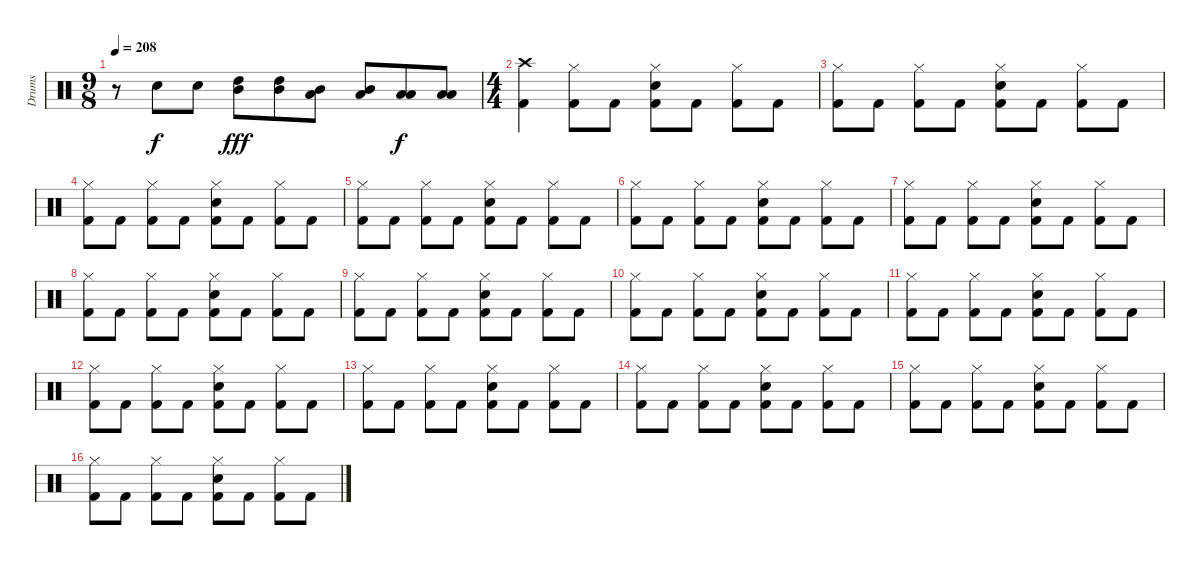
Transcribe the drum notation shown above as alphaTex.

\track ("Drums" "Drums") {instrument percussion}
\staff {score}
\articulation defaults
\ts (9 8)
\tempo 208
\clef neutral
\ks c
r.8{dy f} "Electric Snare (hit)".8 "Electric Snare (hit)".8 ("High Tom (hit)" "Mid Tom (hit)").8{dy fff} ("High Tom (hit)" "Mid Tom (hit)").8 ("Low Tom (hit)" "Mid Tom (hit)").8 ("Low Tom (hit)" "Mid Tom (hit)").8 ("Low Tom (hit)" "Low Tom (hit)").8{dy f} ("Low Tom (hit)" "Low Tom (hit)").8 |
\ts (4 4)
("Crash high (hit)" "Kick (hit) 2").4 ("Hi-Hat (closed)" "Kick (hit) 2").8 "Kick (hit) 2".8 ("Hi-Hat (closed)" "Electric Snare (hit)" "Kick (hit) 2").8 "Kick (hit) 2".8 ("Hi-Hat (closed)" "Kick (hit) 2").8 "Kick (hit) 2".8 |
("Hi-Hat (closed)" "Kick (hit) 2").8 "Kick (hit) 2".8 ("Hi-Hat (closed)" "Kick (hit) 2").8 "Kick (hit) 2".8 ("Hi-Hat (closed)" "Electric Snare (hit)" "Kick (hit) 2").8 "Kick (hit) 2".8 ("Hi-Hat (closed)" "Kick (hit) 2").8 "Kick (hit) 2".8 |
("Hi-Hat (closed)" "Kick (hit) 2").8 "Kick (hit) 2".8 ("Hi-Hat (closed)" "Kick (hit) 2").8 "Kick (hit) 2".8 ("Hi-Hat (closed)" "Electric Snare (hit)" "Kick (hit) 2").8 "Kick (hit) 2".8 ("Hi-Hat (closed)" "Kick (hit) 2").8 "Kick (hit) 2".8 |
("Hi-Hat (closed)" "Kick (hit) 2").8 "Kick (hit) 2".8 ("Hi-Hat (closed)" "Kick (hit) 2").8 "Kick (hit) 2".8 ("Hi-Hat (closed)" "Electric Snare (hit)" "Kick (hit) 2").8 "Kick (hit) 2".8 ("Hi-Hat (closed)" "Kick (hit) 2").8 "Kick (hit) 2".8 |
("Hi-Hat (closed)" "Kick (hit) 2").8 "Kick (hit) 2".8 ("Hi-Hat (closed)" "Kick (hit) 2").8 "Kick (hit) 2".8 ("Hi-Hat (closed)" "Electric Snare (hit)" "Kick (hit) 2").8 "Kick (hit) 2".8 ("Hi-Hat (closed)" "Kick (hit) 2").8 "Kick (hit) 2".8 |
("Hi-Hat (closed)" "Kick (hit) 2").8 "Kick (hit) 2".8 ("Hi-Hat (closed)" "Kick (hit) 2").8 "Kick (hit) 2".8 ("Hi-Hat (closed)" "Electric Snare (hit)" "Kick (hit) 2").8 "Kick (hit) 2".8 ("Hi-Hat (closed)" "Kick (hit) 2").8 "Kick (hit) 2".8 |
("Hi-Hat (closed)" "Kick (hit) 2").8 "Kick (hit) 2".8 ("Hi-Hat (closed)" "Kick (hit) 2").8 "Kick (hit) 2".8 ("Hi-Hat (closed)" "Electric Snare (hit)" "Kick (hit) 2").8 "Kick (hit) 2".8 ("Hi-Hat (closed)" "Kick (hit) 2").8 "Kick (hit) 2".8 |
("Hi-Hat (closed)" "Kick (hit) 2").8 "Kick (hit) 2".8 ("Hi-Hat (closed)" "Kick (hit) 2").8 "Kick (hit) 2".8 ("Hi-Hat (closed)" "Electric Snare (hit)" "Kick (hit) 2").8 "Kick (hit) 2".8 ("Hi-Hat (closed)" "Kick (hit) 2").8 "Kick (hit) 2".8 |
("Hi-Hat (closed)" "Kick (hit) 2").8 "Kick (hit) 2".8 ("Hi-Hat (closed)" "Kick (hit) 2").8 "Kick (hit) 2".8 ("Hi-Hat (closed)" "Electric Snare (hit)" "Kick (hit) 2").8 "Kick (hit) 2".8 ("Hi-Hat (closed)" "Kick (hit) 2").8 "Kick (hit) 2".8 |
("Hi-Hat (closed)" "Kick (hit) 2").8 "Kick (hit) 2".8 ("Hi-Hat (closed)" "Kick (hit) 2").8 "Kick (hit) 2".8 ("Hi-Hat (closed)" "Electric Snare (hit)" "Kick (hit) 2").8 "Kick (hit) 2".8 ("Hi-Hat (closed)" "Kick (hit) 2").8 "Kick (hit) 2".8 |
("Hi-Hat (closed)" "Kick (hit) 2").8 "Kick (hit) 2".8 ("Hi-Hat (closed)" "Kick (hit) 2").8 "Kick (hit) 2".8 ("Hi-Hat (closed)" "Electric Snare (hit)" "Kick (hit) 2").8 "Kick (hit) 2".8 ("Hi-Hat (closed)" "Kick (hit) 2").8 "Kick (hit) 2".8 |
("Hi-Hat (closed)" "Kick (hit) 2").8 "Kick (hit) 2".8 ("Hi-Hat (closed)" "Kick (hit) 2").8 "Kick (hit) 2".8 ("Hi-Hat (closed)" "Electric Snare (hit)" "Kick (hit) 2").8 "Kick (hit) 2".8 ("Hi-Hat (closed)" "Kick (hit) 2").8 "Kick (hit) 2".8 |
("Hi-Hat (closed)" "Kick (hit) 2").8 "Kick (hit) 2".8 ("Hi-Hat (closed)" "Kick (hit) 2").8 "Kick (hit) 2".8 ("Hi-Hat (closed)" "Electric Snare (hit)" "Kick (hit) 2").8 "Kick (hit) 2".8 ("Hi-Hat (closed)" "Kick (hit) 2").8 "Kick (hit) 2".8 |
("Hi-Hat (closed)" "Kick (hit) 2").8 "Kick (hit) 2".8 ("Hi-Hat (closed)" "Kick (hit) 2").8 "Kick (hit) 2".8 ("Hi-Hat (closed)" "Electric Snare (hit)" "Kick (hit) 2").8 "Kick (hit) 2".8 ("Hi-Hat (closed)" "Kick (hit) 2").8 "Kick (hit) 2".8 |
("Hi-Hat (closed)" "Kick (hit) 2").8 "Kick (hit) 2".8 ("Hi-Hat (closed)" "Kick (hit) 2").8 "Kick (hit) 2".8 ("Hi-Hat (closed)" "Electric Snare (hit)" "Kick (hit) 2").8 "Kick (hit) 2".8 ("Hi-Hat (closed)" "Kick (hit) 2").8 "Kick (hit) 2".8
